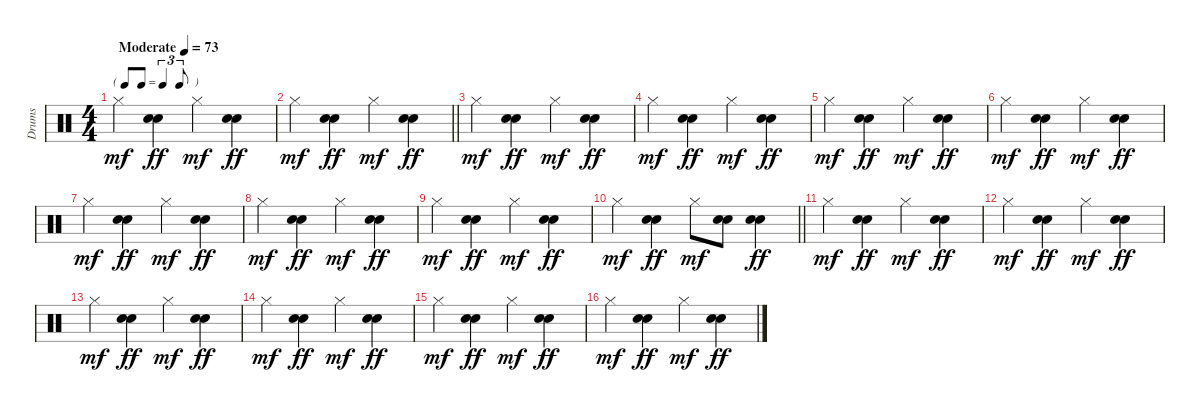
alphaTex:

\track ("Drums" "Drums") {instrument percussion}
\staff {score}
\articulation defaults
\ts (4 4)
\tf triplet8th
\tempo (73 "Moderate")
\clef neutral
\ks c "Hi-Hat (closed)".4{dy mf}
("Snare (hit) 2" "Hand Clap (hit)").4{dy ff} "Hi-Hat (closed)".4{dy mf} ("Snare (hit) 2" "Hand Clap (hit)").4{dy ff} |
\barLineRight lightlight "Hi-Hat (closed)".4{dy mf}
("Snare (hit) 2" "Hand Clap (hit)").4{dy ff} "Hi-Hat (closed)".4{dy mf} ("Snare (hit) 2" "Hand Clap (hit)").4{dy ff} |
\section ("" "")
"Hi-Hat (closed)".4{dy mf} ("Snare (hit) 2" "Hand Clap (hit)").4{dy ff} "Hi-Hat (closed)".4{dy mf} ("Snare (hit) 2" "Hand Clap (hit)").4{dy ff} |
"Hi-Hat (closed)".4{dy mf} ("Snare (hit) 2" "Hand Clap (hit)").4{dy ff} "Hi-Hat (closed)".4{dy mf} ("Snare (hit) 2" "Hand Clap (hit)").4{dy ff} |
"Hi-Hat (closed)".4{dy mf} ("Snare (hit) 2" "Hand Clap (hit)").4{dy ff} "Hi-Hat (closed)".4{dy mf} ("Snare (hit) 2" "Hand Clap (hit)").4{dy ff} |
"Hi-Hat (closed)".4{dy mf} ("Snare (hit) 2" "Hand Clap (hit)").4{dy ff} "Hi-Hat (closed)".4{dy mf} ("Snare (hit) 2" "Hand Clap (hit)").4{dy ff} |
"Hi-Hat (closed)".4{dy mf} ("Snare (hit) 2" "Hand Clap (hit)").4{dy ff} "Hi-Hat (closed)".4{dy mf} ("Snare (hit) 2" "Hand Clap (hit)").4{dy ff} |
"Hi-Hat (closed)".4{dy mf} ("Snare (hit) 2" "Hand Clap (hit)").4{dy ff} "Hi-Hat (closed)".4{dy mf} ("Snare (hit) 2" "Hand Clap (hit)").4{dy ff} |
"Hi-Hat (closed)".4{dy mf} ("Snare (hit) 2" "Hand Clap (hit)").4{dy ff} "Hi-Hat (closed)".4{dy mf} ("Snare (hit) 2" "Hand Clap (hit)").4{dy ff} |
\barLineRight lightlight "Hi-Hat (closed)".4{dy mf}
("Snare (hit) 2" "Hand Clap (hit)").4{dy ff} "Hi-Hat (closed)".8{dy mf} ("Snare (hit) 2" "Hand Clap (hit)").8 ("Snare (hit) 2" "Hand Clap (hit)").4{dy ff} |
\section ("" "")
"Hi-Hat (closed)".4{dy mf} ("Snare (hit) 2" "Hand Clap (hit)").4{dy ff} "Hi-Hat (closed)".4{dy mf} ("Snare (hit) 2" "Hand Clap (hit)").4{dy ff} |
"Hi-Hat (closed)".4{dy mf} ("Snare (hit) 2" "Hand Clap (hit)").4{dy ff} "Hi-Hat (closed)".4{dy mf} ("Snare (hit) 2" "Hand Clap (hit)").4{dy ff} |
"Hi-Hat (closed)".4{dy mf} ("Snare (hit) 2" "Hand Clap (hit)").4{dy ff} "Hi-Hat (closed)".4{dy mf} ("Snare (hit) 2" "Hand Clap (hit)").4{dy ff} |
"Hi-Hat (closed)".4{dy mf} ("Snare (hit) 2" "Hand Clap (hit)").4{dy ff} "Hi-Hat (closed)".4{dy mf} ("Snare (hit) 2" "Hand Clap (hit)").4{dy ff} |
"Hi-Hat (closed)".4{dy mf} ("Snare (hit) 2" "Hand Clap (hit)").4{dy ff} "Hi-Hat (closed)".4{dy mf} ("Snare (hit) 2" "Hand Clap (hit)").4{dy ff} |
"Hi-Hat (closed)".4{dy mf} ("Snare (hit) 2" "Hand Clap (hit)").4{dy ff} "Hi-Hat (closed)".4{dy mf} ("Snare (hit) 2" "Hand Clap (hit)").4{dy ff}
